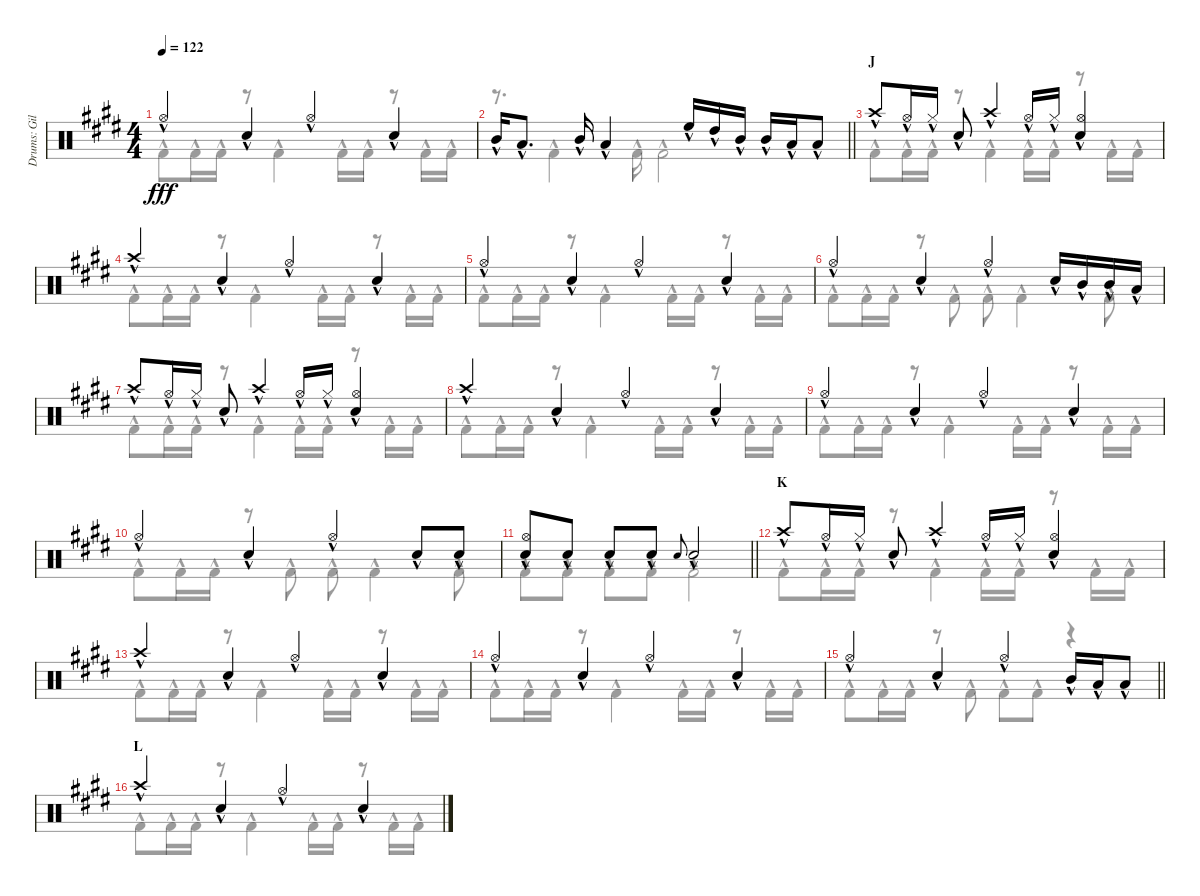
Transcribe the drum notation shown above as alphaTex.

\track ("Drums: Gil" "Drums: Gil") {instrument percussion}
\staff {score}
\articulation defaults
\voice
\ts (4 4)
\tempo 122
\clef neutral
\ks e "Hi-Hat (open)"{hac}.4{dy fff} "Snare (hit) 2"{hac}.4 "Hi-Hat (open)"{hac}.4 "Snare (hit) 2"{hac}.4
|
\barLineRight lightlight "Mid Tom (hit)"{hac}.16 "Low Tom (hit)"{hac}.8{d} "Mid Tom (hit)"{hac}.16 "Low Tom (hit)"{hac}.4 "High Floor Tom (hit)"{hac}.16 "High Tom (hit)"{hac}.16 "Mid Tom (hit)"{hac}.16 "Mid Tom (hit)"{hac}.16 "Low Tom (hit)"{hac}.16 "Low Tom (hit)"{hac}.8
|
\section ("" "J")
"Crash high (hit)"{hac}.8 "Hi-Hat (open)"{hac}.16 "Hi-Hat (closed)"{hac}.16 "Snare (hit) 2"{hac}.8 "Crash high (hit)"{hac}.4 "Hi-Hat (open)"{hac}.16 "Hi-Hat (closed)"{hac}.16 ("Hi-Hat (open)"{hac} "Snare (hit) 2"{hac}).4 |
"Crash high (hit)"{hac}.4 "Snare (hit) 2"{hac}.4 "Hi-Hat (open)"{hac}.4 "Snare (hit) 2"{hac}.4 |
"Hi-Hat (open)"{hac}.4 "Snare (hit) 2"{hac}.4 "Hi-Hat (open)"{hac}.4 "Snare (hit) 2"{hac}.4 |
"Hi-Hat (open)"{hac}.4 "Snare (hit) 2"{hac}.4 "Hi-Hat (open)"{hac}.4 "Snare (hit) 2"{hac}.16 "Mid Tom (hit)"{hac}.16 "Mid Tom (hit)"{hac}.16 "Low Tom (hit)"{hac}.16 |
"Crash high (hit)"{hac}.8 "Hi-Hat (open)"{hac}.16 "Hi-Hat (closed)"{hac}.16 "Snare (hit) 2"{hac}.8 "Crash high (hit)"{hac}.4 "Hi-Hat (open)"{hac}.16 "Hi-Hat (closed)"{hac}.16 ("Hi-Hat (open)"{hac} "Snare (hit) 2"{hac}).4 |
"Crash high (hit)"{hac}.4 "Snare (hit) 2"{hac}.4 "Hi-Hat (open)"{hac}.4 "Snare (hit) 2"{hac}.4 |
"Hi-Hat (open)"{hac}.4 "Snare (hit) 2"{hac}.4 "Hi-Hat (open)"{hac}.4 "Snare (hit) 2"{hac}.4 |
"Hi-Hat (open)"{hac}.4 "Snare (hit) 2"{hac}.4 "Hi-Hat (open)"{hac}.4 "Snare (hit) 2"{hac}.8 "Snare (hit) 2"{hac}.8 |
\barLineRight lightlight
("Hi-Hat (open)"{hac} "Snare (hit) 2"{hac}).8 "Snare (hit) 2"{hac}.8 "Snare (hit) 2"{hac}.8 "Snare (hit) 2"{hac}.8 "Electric Snare (hit)".8{gr onbeat} "Snare (hit) 2"{hac}.2 |
\section ("" "K")
"Crash high (hit)"{hac}.8 "Hi-Hat (open)"{hac}.16 "Hi-Hat (closed)"{hac}.16 "Snare (hit) 2"{hac}.8 "Crash high (hit)"{hac}.4 "Hi-Hat (open)"{hac}.16 "Hi-Hat (closed)"{hac}.16 ("Hi-Hat (open)"{hac} "Snare (hit) 2"{hac}).4 |
"Crash high (hit)"{hac}.4 "Snare (hit) 2"{hac}.4 "Hi-Hat (open)"{hac}.4 "Snare (hit) 2"{hac}.4 |
"Hi-Hat (open)"{hac}.4 "Snare (hit) 2"{hac}.4 "Hi-Hat (open)"{hac}.4 "Snare (hit) 2"{hac}.4 |
\barLineRight lightlight "Hi-Hat (open)"{hac}.4 "Snare (hit) 2"{hac}.4 "Hi-Hat (open)"{hac}.4 "Mid Tom (hit)"{hac}.16 "Low Tom (hit)"{hac}.16 "Low Tom (hit)"{hac}.8
|
\section ("" "L")
"Crash high (hit)"{hac}.4 "Snare (hit) 2"{hac}.4 "Hi-Hat (open)"{hac}.4 "Snare (hit) 2"{hac}.4
\voice
\clef neutral
\ottava regular
\simile none
\ks e "Kick (hit) 2"{hac}.8{dy fff} "Kick (hit) 2"{hac}.16 "Kick (hit) 2"{hac}.16
r.8 "Kick (hit) 2"{hac}.4 "Kick (hit) 2"{hac}.16 "Kick (hit) 2"{hac}.16 r.8 "Kick (hit) 2"{hac}.16 "Kick (hit) 2"{hac}.16 |
\barLineRight lightlight
r.8{d} "Kick (hit) 2"{hac}.4 "Kick (hit) 2"{hac}.16 "Kick (hit) 2"{hac}.2 |
"Kick (hit) 2"{hac}.8 "Kick (hit) 2"{hac}.16 "Kick (hit) 2"{hac}.16 r.8 "Kick (hit) 2"{hac}.4 "Kick (hit) 2"{hac}.16 "Kick (hit) 2"{hac}.16 r.8 "Kick (hit) 2"{hac}.16 "Kick (hit) 2"{hac}.16 |
"Kick (hit) 2"{hac}.8 "Kick (hit) 2"{hac}.16 "Kick (hit) 2"{hac}.16 r.8 "Kick (hit) 2"{hac}.4 "Kick (hit) 2"{hac}.16 "Kick (hit) 2"{hac}.16 r.8 "Kick (hit) 2"{hac}.16 "Kick (hit) 2"{hac}.16 |
"Kick (hit) 2"{hac}.8 "Kick (hit) 2"{hac}.16 "Kick (hit) 2"{hac}.16 r.8 "Kick (hit) 2"{hac}.4 "Kick (hit) 2"{hac}.16 "Kick (hit) 2"{hac}.16 r.8 "Kick (hit) 2"{hac}.16 "Kick (hit) 2"{hac}.16 |
"Kick (hit) 2"{hac}.8 "Kick (hit) 2"{hac}.16 "Kick (hit) 2"{hac}.16 r.8 "Kick (hit) 2"{hac}.8 "Kick (hit) 2"{hac}.8 "Kick (hit) 2"{hac}.4 "Kick (hit) 2"{hac}.8 |
"Kick (hit) 2"{hac}.8 "Kick (hit) 2"{hac}.16 "Kick (hit) 2"{hac}.16 r.8 "Kick (hit) 2"{hac}.4 "Kick (hit) 2"{hac}.16 "Kick (hit) 2"{hac}.16 r.8 "Kick (hit) 2"{hac}.16 "Kick (hit) 2"{hac}.16 |
"Kick (hit) 2"{hac}.8 "Kick (hit) 2"{hac}.16 "Kick (hit) 2"{hac}.16 r.8 "Kick (hit) 2"{hac}.4 "Kick (hit) 2"{hac}.16 "Kick (hit) 2"{hac}.16 r.8 "Kick (hit) 2"{hac}.16 "Kick (hit) 2"{hac}.16 |
"Kick (hit) 2"{hac}.8 "Kick (hit) 2"{hac}.16 "Kick (hit) 2"{hac}.16 r.8 "Kick (hit) 2"{hac}.4 "Kick (hit) 2"{hac}.16 "Kick (hit) 2"{hac}.16 r.8 "Kick (hit) 2"{hac}.16 "Kick (hit) 2"{hac}.16 |
"Kick (hit) 2"{hac}.8 "Kick (hit) 2"{hac}.16 "Kick (hit) 2"{hac}.16 r.8 "Kick (hit) 2"{hac}.8 "Kick (hit) 2"{hac}.8 "Kick (hit) 2"{hac}.4 "Kick (hit) 2"{hac}.8 |
\barLineRight lightlight "Kick (hit) 2"{hac}.8 "Kick (hit) 2"{hac}.8 "Kick (hit) 2"{hac}.8 "Kick (hit) 2"{hac}.8 "Kick (hit) 2"{hac}.2
|
"Kick (hit) 2"{hac}.8 "Kick (hit) 2"{hac}.16 "Kick (hit) 2"{hac}.16 r.8 "Kick (hit) 2"{hac}.4 "Kick (hit) 2"{hac}.16 "Kick (hit) 2"{hac}.16 r.8 "Kick (hit) 2"{hac}.16 "Kick (hit) 2"{hac}.16 |
"Kick (hit) 2"{hac}.8 "Kick (hit) 2"{hac}.16 "Kick (hit) 2"{hac}.16 r.8 "Kick (hit) 2"{hac}.4 "Kick (hit) 2"{hac}.16 "Kick (hit) 2"{hac}.16 r.8 "Kick (hit) 2"{hac}.16 "Kick (hit) 2"{hac}.16 |
"Kick (hit) 2"{hac}.8 "Kick (hit) 2"{hac}.16 "Kick (hit) 2"{hac}.16 r.8 "Kick (hit) 2"{hac}.4 "Kick (hit) 2"{hac}.16 "Kick (hit) 2"{hac}.16 r.8 "Kick (hit) 2"{hac}.16 "Kick (hit) 2"{hac}.16 |
\barLineRight lightlight "Kick (hit) 2"{hac}.8 "Kick (hit) 2"{hac}.16 "Kick (hit) 2"{hac}.16
r.8 "Kick (hit) 2"{hac}.8 "Kick (hit) 2"{hac}.8 "Kick (hit) 2"{hac}.8 r.4 |
"Kick (hit) 2"{hac}.8 "Kick (hit) 2"{hac}.16 "Kick (hit) 2"{hac}.16 r.8 "Kick (hit) 2"{hac}.4 "Kick (hit) 2"{hac}.16 "Kick (hit) 2"{hac}.16 r.8 "Kick (hit) 2"{hac}.16 "Kick (hit) 2"{hac}.16
